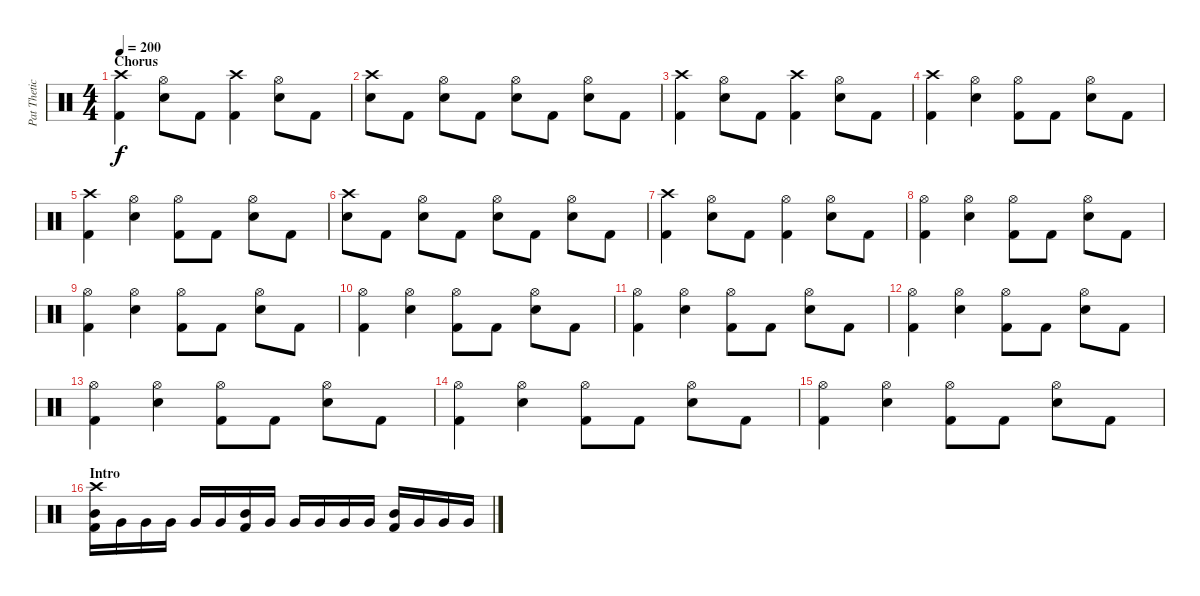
\track ("Pat Thetic (Drums)" "Pat Thetic") {instrument percussion}
\staff {score}
\articulation defaults
\ts (4 4)
\section ("" "Chorus")
\tempo 200
\clef neutral
\ks c
("Crash high (hit)" "Kick (hit) 2").4{dy f} ("Hi-Hat (open)" "Electric Snare (hit)").8 "Kick (hit) 2".8 ("Crash high (hit)" "Kick (hit) 2").4 ("Hi-Hat (open)" "Electric Snare (hit)").8 "Kick (hit) 2".8 |
("Crash high (hit)" "Electric Snare (hit)").8 "Kick (hit) 2".8 ("Hi-Hat (open)" "Electric Snare (hit)").8 "Kick (hit) 2".8 ("Hi-Hat (open)" "Electric Snare (hit)").8 "Kick (hit) 2".8 ("Hi-Hat (open)" "Electric Snare (hit)").8 "Kick (hit) 2".8 |
("Crash high (hit)" "Kick (hit) 2").4 ("Hi-Hat (open)" "Electric Snare (hit)").8 "Kick (hit) 2".8 ("Crash high (hit)" "Kick (hit) 2").4 ("Hi-Hat (open)" "Electric Snare (hit)").8 "Kick (hit) 2".8 |
("Crash high (hit)" "Kick (hit) 2").4 ("Hi-Hat (open)" "Electric Snare (hit)").4 ("Hi-Hat (open)" "Kick (hit) 2").8 "Kick (hit) 2".8 ("Hi-Hat (open)" "Electric Snare (hit)").8 "Kick (hit) 2".8 |
("Crash high (hit)" "Kick (hit) 2").4 ("Hi-Hat (open)" "Electric Snare (hit)").4 ("Hi-Hat (open)" "Kick (hit) 2").8 "Kick (hit) 2".8 ("Hi-Hat (open)" "Electric Snare (hit)").8 "Kick (hit) 2".8 |
("Crash high (hit)" "Electric Snare (hit)").8 "Kick (hit) 2".8 ("Hi-Hat (open)" "Electric Snare (hit)").8 "Kick (hit) 2".8 ("Hi-Hat (open)" "Electric Snare (hit)").8 "Kick (hit) 2".8 ("Hi-Hat (open)" "Electric Snare (hit)").8 "Kick (hit) 2".8 |
("Crash high (hit)" "Kick (hit) 2").4 ("Hi-Hat (open)" "Electric Snare (hit)").8 "Kick (hit) 2".8 ("Hi-Hat (open)" "Kick (hit) 2").4 ("Hi-Hat (open)" "Electric Snare (hit)").8 "Kick (hit) 2".8 |
("Hi-Hat (open)" "Kick (hit) 2").4 ("Hi-Hat (open)" "Electric Snare (hit)").4 ("Hi-Hat (open)" "Kick (hit) 2").8 "Kick (hit) 2".8 ("Hi-Hat (open)" "Electric Snare (hit)").8 "Kick (hit) 2".8 |
("Hi-Hat (open)" "Kick (hit) 2").4 ("Hi-Hat (open)" "Electric Snare (hit)").4 ("Hi-Hat (open)" "Kick (hit) 2").8 "Kick (hit) 2".8 ("Hi-Hat (open)" "Electric Snare (hit)").8 "Kick (hit) 2".8 |
("Hi-Hat (open)" "Kick (hit) 2").4 ("Hi-Hat (open)" "Electric Snare (hit)").4 ("Hi-Hat (open)" "Kick (hit) 2").8 "Kick (hit) 2".8 ("Hi-Hat (open)" "Electric Snare (hit)").8 "Kick (hit) 2".8 |
("Hi-Hat (open)" "Kick (hit) 2").4 ("Hi-Hat (open)" "Electric Snare (hit)").4 ("Hi-Hat (open)" "Kick (hit) 2").8 "Kick (hit) 2".8 ("Hi-Hat (open)" "Electric Snare (hit)").8 "Kick (hit) 2".8 |
("Hi-Hat (open)" "Kick (hit) 2").4 ("Hi-Hat (open)" "Electric Snare (hit)").4 ("Hi-Hat (open)" "Kick (hit) 2").8 "Kick (hit) 2".8 ("Hi-Hat (open)" "Electric Snare (hit)").8 "Kick (hit) 2".8 |
("Hi-Hat (open)" "Kick (hit) 2").4 ("Hi-Hat (open)" "Electric Snare (hit)").4 ("Hi-Hat (open)" "Kick (hit) 2").8 "Kick (hit) 2".8 ("Hi-Hat (open)" "Electric Snare (hit)").8 "Kick (hit) 2".8 |
("Hi-Hat (open)" "Kick (hit) 2").4 ("Hi-Hat (open)" "Electric Snare (hit)").4 ("Hi-Hat (open)" "Kick (hit) 2").8 "Kick (hit) 2".8 ("Hi-Hat (open)" "Electric Snare (hit)").8 "Kick (hit) 2".8 |
("Hi-Hat (open)" "Kick (hit) 2").4 ("Hi-Hat (open)" "Electric Snare (hit)").4 ("Hi-Hat (open)" "Kick (hit) 2").8 "Kick (hit) 2".8 ("Hi-Hat (open)" "Electric Snare (hit)").8 "Kick (hit) 2".8 |
\section ("" "Intro")
("Crash high (hit)" "Mid Tom (hit)" "Kick (hit) 2").16 "Very Low Tom (hit)".16 "Very Low Tom (hit)".16 "Very Low Tom (hit)".16 "Very Low Tom (hit)".16 "Very Low Tom (hit)".16 ("Mid Tom (hit)" "Kick (hit) 2").16 "Very Low Tom (hit)".16 "Very Low Tom (hit)".16 "Very Low Tom (hit)".16 "Very Low Tom (hit)".16 "Very Low Tom (hit)".16 ("Mid Tom (hit)" "Kick (hit) 2").16 "Very Low Tom (hit)".16 "Very Low Tom (hit)".16 "Very Low Tom (hit)".16
